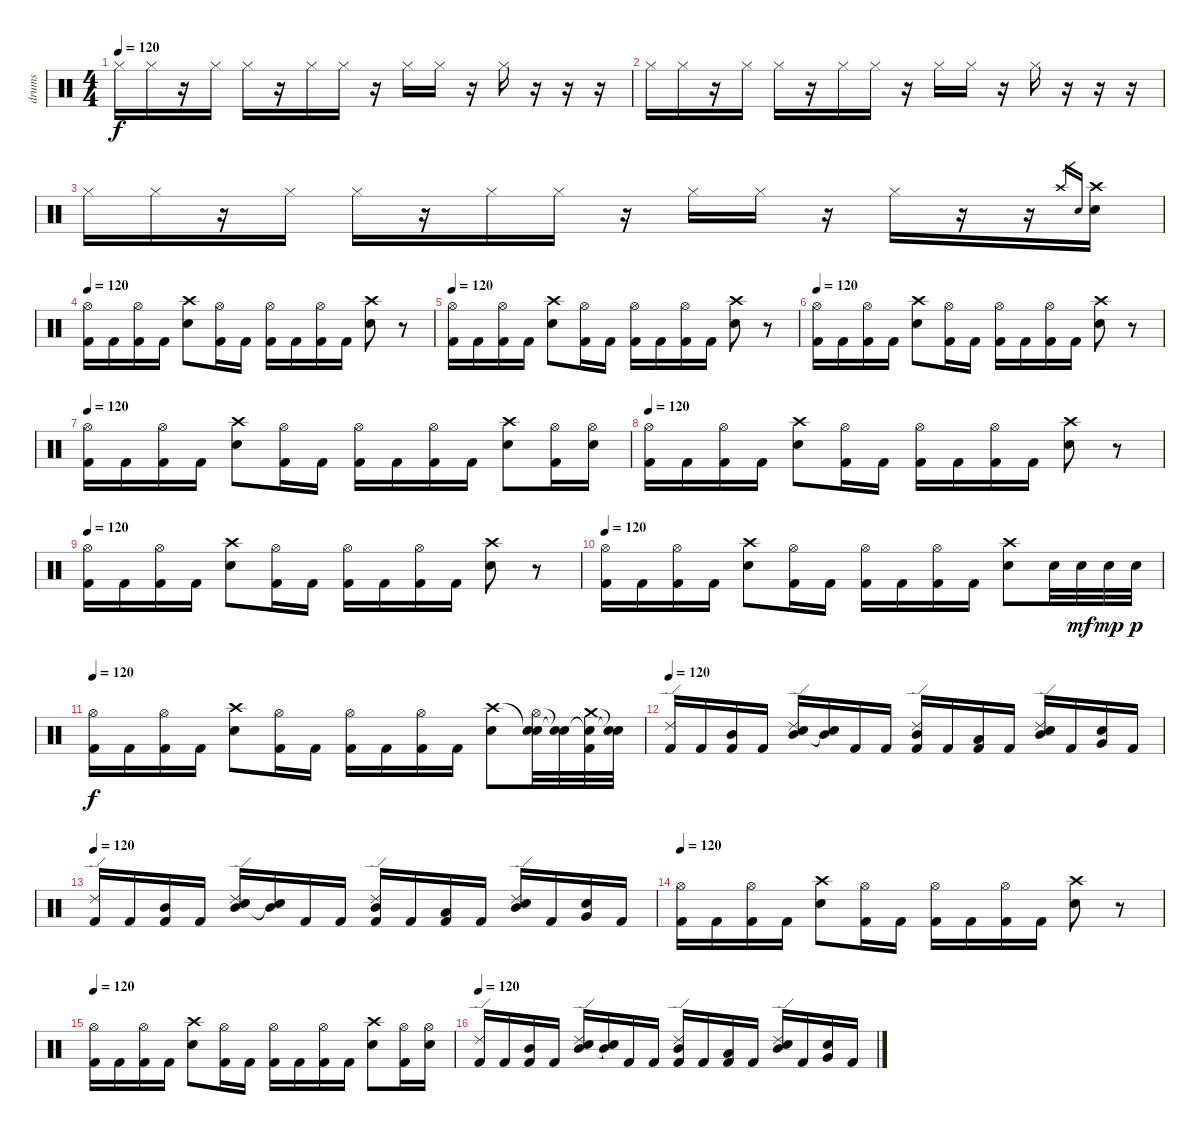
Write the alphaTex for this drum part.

\track ("drums" "drums") {instrument percussion}
\staff {score}
\articulation defaults
\ts (4 4)
\tempo 120
\clef neutral
\ks c "Hi-Hat (closed)".16{dy f} "Hi-Hat (closed)".16
r.16 "Hi-Hat (closed)".16 "Hi-Hat (closed)".16 r.16 "Hi-Hat (closed)".16 "Hi-Hat (closed)".16 r.16 "Hi-Hat (closed)".16 "Hi-Hat (closed)".16 r.16 "Hi-Hat (closed)".16 r.16 r.16 r.16 |
"Hi-Hat (closed)".16 "Hi-Hat (closed)".16 r.16 "Hi-Hat (closed)".16 "Hi-Hat (closed)".16 r.16 "Hi-Hat (closed)".16 "Hi-Hat (closed)".16 r.16 "Hi-Hat (closed)".16 "Hi-Hat (closed)".16 r.16 "Hi-Hat (closed)".16 r.16 r.16 r.16 |
"Hi-Hat (closed)".16 "Hi-Hat (closed)".16 r.16 "Hi-Hat (closed)".16 "Hi-Hat (closed)".16 r.16 "Hi-Hat (closed)".16 "Hi-Hat (closed)".16 r.16 "Hi-Hat (closed)".16 "Hi-Hat (closed)".16 r.16 "Hi-Hat (closed)".16 r.16 r.16 "Crash high (hit)".16{gr} "Electric Snare (hit)".16{gr} ("Crash high (hit)" "Electric Snare (hit)").16 |
\tempo 120
("Hi-Hat (open)" "Kick (hit) 2").16 "Kick (hit) 2".16 ("Hi-Hat (open)" "Kick (hit) 2").16 "Kick (hit) 2".16 ("Crash high (hit)" "Electric Snare (hit)").8 ("Hi-Hat (open)" "Kick (hit) 2").16 "Kick (hit) 2".16 ("Hi-Hat (open)" "Kick (hit) 2").16 "Kick (hit) 2".16 ("Hi-Hat (open)" "Kick (hit) 2").16 "Kick (hit) 2".16 ("Crash high (hit)" "Electric Snare (hit)").8 r.8 |
\tempo 120
("Hi-Hat (open)" "Kick (hit) 2").16 "Kick (hit) 2".16 ("Hi-Hat (open)" "Kick (hit) 2").16 "Kick (hit) 2".16 ("Crash high (hit)" "Electric Snare (hit)").8 ("Hi-Hat (open)" "Kick (hit) 2").16 "Kick (hit) 2".16 ("Hi-Hat (open)" "Kick (hit) 2").16 "Kick (hit) 2".16 ("Hi-Hat (open)" "Kick (hit) 2").16 "Kick (hit) 2".16 ("Crash high (hit)" "Electric Snare (hit)").8 r.8 |
\tempo 120
("Hi-Hat (open)" "Kick (hit) 2").16 "Kick (hit) 2".16 ("Hi-Hat (open)" "Kick (hit) 2").16 "Kick (hit) 2".16 ("Crash high (hit)" "Electric Snare (hit)").8 ("Hi-Hat (open)" "Kick (hit) 2").16 "Kick (hit) 2".16 ("Hi-Hat (open)" "Kick (hit) 2").16 "Kick (hit) 2".16 ("Hi-Hat (open)" "Kick (hit) 2").16 "Kick (hit) 2".16 ("Crash high (hit)" "Electric Snare (hit)").8 r.8 |
\tempo 120
("Hi-Hat (open)" "Kick (hit) 2").16 "Kick (hit) 2".16 ("Hi-Hat (open)" "Kick (hit) 2").16 "Kick (hit) 2".16 ("Crash high (hit)" "Electric Snare (hit)").8 ("Hi-Hat (open)" "Kick (hit) 2").16 "Kick (hit) 2".16 ("Hi-Hat (open)" "Kick (hit) 2").16 "Kick (hit) 2".16 ("Hi-Hat (open)" "Kick (hit) 2").16 "Kick (hit) 2".16 ("Crash high (hit)" "Electric Snare (hit)").8 ("Hi-Hat (open)" "Kick (hit) 2").16 ("Hi-Hat (open)" "Electric Snare (hit)").16 |
\tempo 120
("Hi-Hat (open)" "Kick (hit) 2").16 "Kick (hit) 2".16 ("Hi-Hat (open)" "Kick (hit) 2").16 "Kick (hit) 2".16 ("Crash high (hit)" "Electric Snare (hit)").8 ("Hi-Hat (open)" "Kick (hit) 2").16 "Kick (hit) 2".16 ("Hi-Hat (open)" "Kick (hit) 2").16 "Kick (hit) 2".16 ("Hi-Hat (open)" "Kick (hit) 2").16 "Kick (hit) 2".16 ("Crash high (hit)" "Electric Snare (hit)").8 r.8 |
\tempo 120
("Hi-Hat (open)" "Kick (hit) 2").16 "Kick (hit) 2".16 ("Hi-Hat (open)" "Kick (hit) 2").16 "Kick (hit) 2".16 ("Crash high (hit)" "Electric Snare (hit)").8 ("Hi-Hat (open)" "Kick (hit) 2").16 "Kick (hit) 2".16 ("Hi-Hat (open)" "Kick (hit) 2").16 "Kick (hit) 2".16 ("Hi-Hat (open)" "Kick (hit) 2").16 "Kick (hit) 2".16 ("Crash high (hit)" "Electric Snare (hit)").8 r.8 |
\tempo 120
("Hi-Hat (open)" "Kick (hit) 2").16 "Kick (hit) 2".16 ("Hi-Hat (open)" "Kick (hit) 2").16 "Kick (hit) 2".16 ("Crash high (hit)" "Electric Snare (hit)").8 ("Hi-Hat (open)" "Kick (hit) 2").16 "Kick (hit) 2".16 ("Hi-Hat (open)" "Kick (hit) 2").16 "Kick (hit) 2".16 ("Hi-Hat (open)" "Kick (hit) 2").16 "Kick (hit) 2".16 ("Crash high (hit)" "Electric Snare (hit)").8 "Electric Snare (hit)".32 "Electric Snare (hit)".32{dy mf} "Electric Snare (hit)".32{dy mp} "Electric Snare (hit)".32{dy p} |
\tempo 120
("Hi-Hat (open)" "Kick (hit) 2").16{dy f} "Kick (hit) 2".16 ("Hi-Hat (open)" "Kick (hit) 2").16 "Kick (hit) 2".16 ("Crash high (hit)" "Electric Snare (hit)").8 ("Hi-Hat (open)" "Kick (hit) 2").16 "Kick (hit) 2".16 ("Hi-Hat (open)" "Kick (hit) 2").16 "Kick (hit) 2".16 ("Hi-Hat (open)" "Kick (hit) 2").16 "Kick (hit) 2".16 ("Crash high (hit)" "Electric Snare (hit)").8 ("Snare (hit)"{t} "Hi-Hat (open)" "Electric Snare (hit)").32 ("Snare (hit)"{t} "Electric Snare (hit)"{t}).32 ("Snare (hit)"{t} "Crash medium (hit)" "Kick (hit) 2").32 ("Snare (hit)"{t} "Electric Snare (hit)"{t}).32 |
\tempo 120
("Ride (edge) 2" "Kick (hit) 2").16 "Kick (hit) 2".16 ("Mid Tom (hit)" "Kick (hit) 2").16 "Kick (hit) 2".16 ("Ride (edge) 2" "Mid Tom (hit)" "Electric Snare (hit)").16 ("Mid Tom (hit)" "Snare (hit)"{t}).16 "Kick (hit) 2".16 "Kick (hit) 2".16 ("Ride (edge) 2" "Mid Tom (hit)" "Kick (hit) 2").16 "Kick (hit) 2".16 ("Low Tom (hit)" "Kick (hit) 2").16 "Kick (hit) 2".16 ("Ride (edge) 2" "Mid Tom (hit)" "Electric Snare (hit)").16 "Kick (hit) 2".16 ("Very Low Tom (hit)" "Electric Snare (hit)").16 "Kick (hit) 2".16 |
\tempo 120
("Ride (edge) 2" "Kick (hit) 2").16 "Kick (hit) 2".16 ("Mid Tom (hit)" "Kick (hit) 2").16 "Kick (hit) 2".16 ("Ride (edge) 2" "Mid Tom (hit)" "Electric Snare (hit)").16 ("Mid Tom (hit)" "Snare (hit)"{t}).16 "Kick (hit) 2".16 "Kick (hit) 2".16 ("Ride (edge) 2" "Mid Tom (hit)" "Kick (hit) 2").16 "Kick (hit) 2".16 ("Low Tom (hit)" "Kick (hit) 2").16 "Kick (hit) 2".16 ("Ride (edge) 2" "Mid Tom (hit)" "Electric Snare (hit)").16 "Kick (hit) 2".16 ("Very Low Tom (hit)" "Electric Snare (hit)").16 "Kick (hit) 2".16 |
\tempo 120
("Hi-Hat (open)" "Kick (hit) 2").16 "Kick (hit) 2".16 ("Hi-Hat (open)" "Kick (hit) 2").16 "Kick (hit) 2".16 ("Crash high (hit)" "Electric Snare (hit)").8 ("Hi-Hat (open)" "Kick (hit) 2").16 "Kick (hit) 2".16 ("Hi-Hat (open)" "Kick (hit) 2").16 "Kick (hit) 2".16 ("Hi-Hat (open)" "Kick (hit) 2").16 "Kick (hit) 2".16 ("Crash high (hit)" "Electric Snare (hit)").8 r.8 |
\tempo 120
("Hi-Hat (open)" "Kick (hit) 2").16 "Kick (hit) 2".16 ("Hi-Hat (open)" "Kick (hit) 2").16 "Kick (hit) 2".16 ("Crash high (hit)" "Electric Snare (hit)").8 ("Hi-Hat (open)" "Kick (hit) 2").16 "Kick (hit) 2".16 ("Hi-Hat (open)" "Kick (hit) 2").16 "Kick (hit) 2".16 ("Hi-Hat (open)" "Kick (hit) 2").16 "Kick (hit) 2".16 ("Crash high (hit)" "Electric Snare (hit)").8 ("Hi-Hat (open)" "Kick (hit) 2").16 ("Hi-Hat (open)" "Electric Snare (hit)").16 |
\tempo 120
("Ride (edge) 2" "Kick (hit) 2").16 "Kick (hit) 2".16 ("Mid Tom (hit)" "Kick (hit) 2").16 "Kick (hit) 2".16 ("Ride (edge) 2" "Mid Tom (hit)" "Electric Snare (hit)").16 ("Mid Tom (hit)" "Snare (hit)"{t}).16 "Kick (hit) 2".16 "Kick (hit) 2".16 ("Ride (edge) 2" "Mid Tom (hit)" "Kick (hit) 2").16 "Kick (hit) 2".16 ("Low Tom (hit)" "Kick (hit) 2").16 "Kick (hit) 2".16 ("Ride (edge) 2" "Mid Tom (hit)" "Electric Snare (hit)").16 "Kick (hit) 2".16 ("Very Low Tom (hit)" "Electric Snare (hit)").16 "Kick (hit) 2".16
